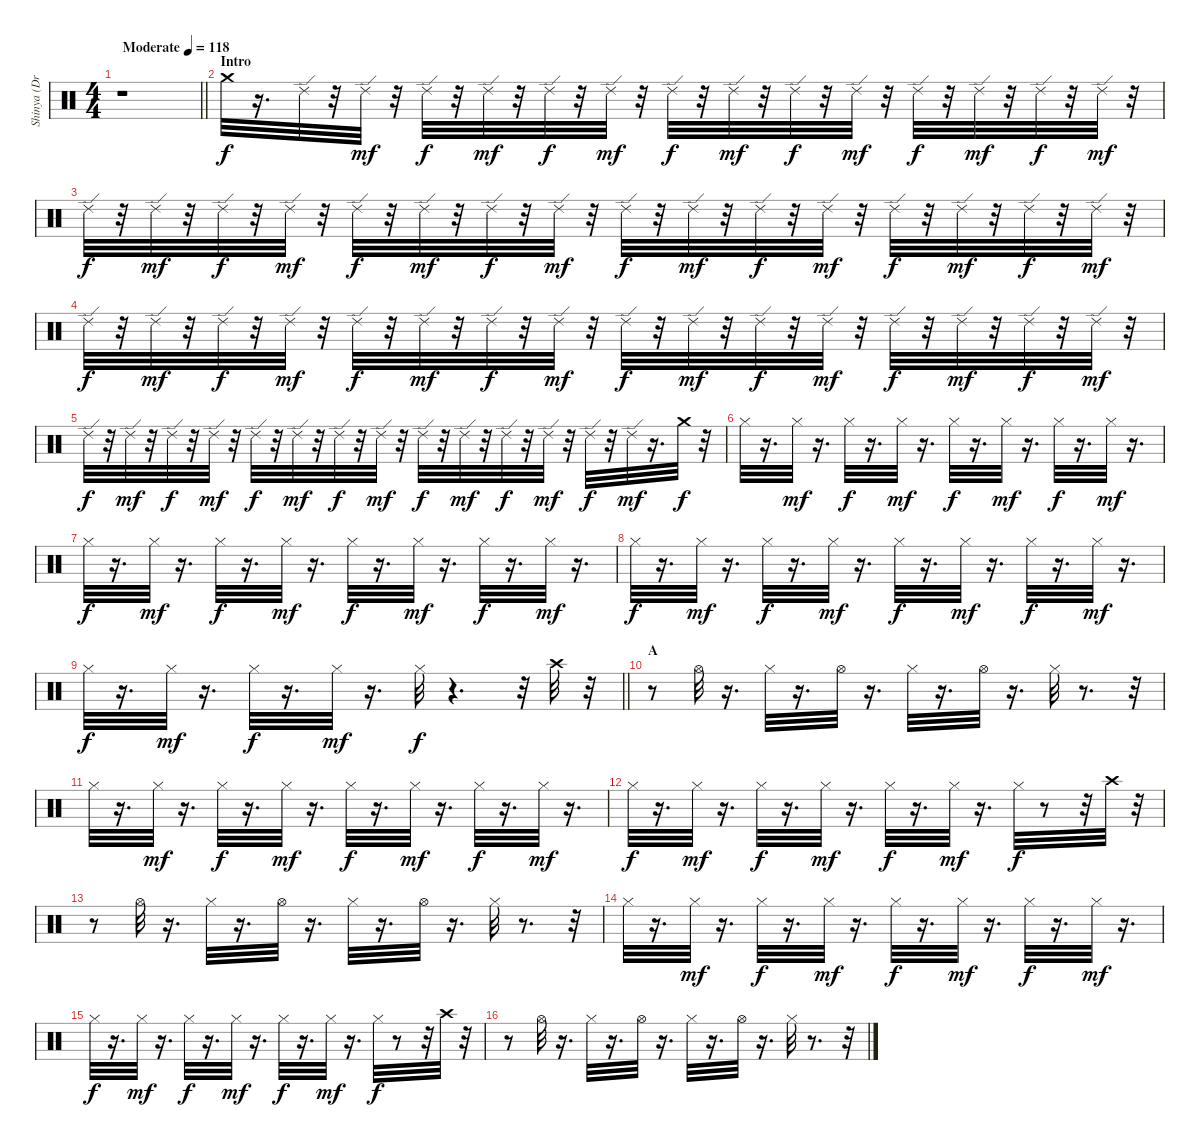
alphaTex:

\track ("Shinya (Drums)" "Shinya (Dr") {instrument percussion}
\staff {score}
\articulation defaults
\ts (4 4)
\tempo (118 "Moderate")
\clef neutral
\barLineRight lightlight
\ks c
r.1{dy f} |
\section ("" "Intro")
"Crash medium (hit)".32 r.16{d} "Ride (edge) 2".32 r.32 "Ride (edge) 2".32{dy mf} r.32 "Ride (edge) 2".32{dy f} r.32 "Ride (edge) 2".32{dy mf} r.32 "Ride (edge) 2".32{dy f} r.32 "Ride (edge) 2".32{dy mf} r.32 "Ride (edge) 2".32{dy f} r.32 "Ride (edge) 2".32{dy mf} r.32 "Ride (edge) 2".32{dy f} r.32 "Ride (edge) 2".32{dy mf} r.32 "Ride (edge) 2".32{dy f} r.32 "Ride (edge) 2".32{dy mf} r.32 "Ride (edge) 2".32{dy f} r.32 "Ride (edge) 2".32{dy mf} r.32 |
"Ride (edge) 2".32{dy f} r.32 "Ride (edge) 2".32{dy mf} r.32 "Ride (edge) 2".32{dy f} r.32 "Ride (edge) 2".32{dy mf} r.32 "Ride (edge) 2".32{dy f} r.32 "Ride (edge) 2".32{dy mf} r.32 "Ride (edge) 2".32{dy f} r.32 "Ride (edge) 2".32{dy mf} r.32 "Ride (edge) 2".32{dy f} r.32 "Ride (edge) 2".32{dy mf} r.32 "Ride (edge) 2".32{dy f} r.32 "Ride (edge) 2".32{dy mf} r.32 "Ride (edge) 2".32{dy f} r.32 "Ride (edge) 2".32{dy mf} r.32 "Ride (edge) 2".32{dy f} r.32 "Ride (edge) 2".32{dy mf} r.32 |
"Ride (edge) 2".32{dy f} r.32 "Ride (edge) 2".32{dy mf} r.32 "Ride (edge) 2".32{dy f} r.32 "Ride (edge) 2".32{dy mf} r.32 "Ride (edge) 2".32{dy f} r.32 "Ride (edge) 2".32{dy mf} r.32 "Ride (edge) 2".32{dy f} r.32 "Ride (edge) 2".32{dy mf} r.32 "Ride (edge) 2".32{dy f} r.32 "Ride (edge) 2".32{dy mf} r.32 "Ride (edge) 2".32{dy f} r.32 "Ride (edge) 2".32{dy mf} r.32 "Ride (edge) 2".32{dy f} r.32 "Ride (edge) 2".32{dy mf} r.32 "Ride (edge) 2".32{dy f} r.32 "Ride (edge) 2".32{dy mf} r.32 |
"Ride (edge) 2".32{dy f} r.32 "Ride (edge) 2".32{dy mf} r.32 "Ride (edge) 2".32{dy f} r.32 "Ride (edge) 2".32{dy mf} r.32 "Ride (edge) 2".32{dy f} r.32 "Ride (edge) 2".32{dy mf} r.32 "Ride (edge) 2".32{dy f} r.32 "Ride (edge) 2".32{dy mf} r.32 "Ride (edge) 2".32{dy f} r.32 "Ride (edge) 2".32{dy mf} r.32 "Ride (edge) 2".32{dy f} r.32 "Ride (edge) 2".32{dy mf} r.32 "Ride (edge) 2".32{dy f} r.32 "Ride (edge) 2".32{dy mf} r.16{d} "Crash medium (hit)".32{dy f} r.32 |
"Hi-Hat (closed)".32 r.16{d} "Hi-Hat (closed)".32{dy mf} r.16{d} "Hi-Hat (closed)".32{dy f} r.16{d} "Hi-Hat (closed)".32{dy mf} r.16{d} "Hi-Hat (closed)".32{dy f} r.16{d} "Hi-Hat (closed)".32{dy mf} r.16{d} "Hi-Hat (closed)".32{dy f} r.16{d} "Hi-Hat (closed)".32{dy mf} r.16{d} |
"Hi-Hat (closed)".32{dy f} r.16{d} "Hi-Hat (closed)".32{dy mf} r.16{d} "Hi-Hat (closed)".32{dy f} r.16{d} "Hi-Hat (closed)".32{dy mf} r.16{d} "Hi-Hat (closed)".32{dy f} r.16{d} "Hi-Hat (closed)".32{dy mf} r.16{d} "Hi-Hat (closed)".32{dy f} r.16{d} "Hi-Hat (closed)".32{dy mf} r.16{d} |
"Hi-Hat (closed)".32{dy f} r.16{d} "Hi-Hat (closed)".32{dy mf} r.16{d} "Hi-Hat (closed)".32{dy f} r.16{d} "Hi-Hat (closed)".32{dy mf} r.16{d} "Hi-Hat (closed)".32{dy f} r.16{d} "Hi-Hat (closed)".32{dy mf} r.16{d} "Hi-Hat (closed)".32{dy f} r.16{d} "Hi-Hat (closed)".32{dy mf} r.16{d} |
\barLineRight lightlight "Hi-Hat (closed)".32{dy f}
r.16{d} "Hi-Hat (closed)".32{dy mf} r.16{d} "Hi-Hat (closed)".32{dy f} r.16{d} "Hi-Hat (closed)".32{dy mf} r.16{d} "Hi-Hat (closed)".32{dy f} r.4{d} r.32 "Crash high (hit)".32 r.32 |
\section ("" "A")
r.8 "Hi-Hat (open)".32 r.16{d} "Hi-Hat (closed)".32 r.16{d} "Hi-Hat (open)".32 r.16{d} "Hi-Hat (closed)".32 r.16{d} "Hi-Hat (open)".32 r.16{d} "Hi-Hat (closed)".32 r.8{d} r.32 |
"Hi-Hat (closed)".32 r.16{d} "Hi-Hat (closed)".32{dy mf} r.16{d} "Hi-Hat (closed)".32{dy f} r.16{d} "Hi-Hat (closed)".32{dy mf} r.16{d} "Hi-Hat (closed)".32{dy f} r.16{d} "Hi-Hat (closed)".32{dy mf} r.16{d} "Hi-Hat (closed)".32{dy f} r.16{d} "Hi-Hat (closed)".32{dy mf} r.16{d} |
"Hi-Hat (closed)".32{dy f} r.16{d} "Hi-Hat (closed)".32{dy mf} r.16{d} "Hi-Hat (closed)".32{dy f} r.16{d} "Hi-Hat (closed)".32{dy mf} r.16{d} "Hi-Hat (closed)".32{dy f} r.16{d} "Hi-Hat (closed)".32{dy mf} r.16{d} "Hi-Hat (closed)".32{dy f} r.8 r.32 "Crash high (hit)".32 r.32 |
r.8 "Hi-Hat (open)".32 r.16{d} "Hi-Hat (closed)".32 r.16{d} "Hi-Hat (open)".32 r.16{d} "Hi-Hat (closed)".32 r.16{d} "Hi-Hat (open)".32 r.16{d} "Hi-Hat (closed)".32 r.8{d} r.32 |
"Hi-Hat (closed)".32 r.16{d} "Hi-Hat (closed)".32{dy mf} r.16{d} "Hi-Hat (closed)".32{dy f} r.16{d} "Hi-Hat (closed)".32{dy mf} r.16{d} "Hi-Hat (closed)".32{dy f} r.16{d} "Hi-Hat (closed)".32{dy mf} r.16{d} "Hi-Hat (closed)".32{dy f} r.16{d} "Hi-Hat (closed)".32{dy mf} r.16{d} |
"Hi-Hat (closed)".32{dy f} r.16{d} "Hi-Hat (closed)".32{dy mf} r.16{d} "Hi-Hat (closed)".32{dy f} r.16{d} "Hi-Hat (closed)".32{dy mf} r.16{d} "Hi-Hat (closed)".32{dy f} r.16{d} "Hi-Hat (closed)".32{dy mf} r.16{d} "Hi-Hat (closed)".32{dy f} r.8 r.32 "Crash high (hit)".32 r.32 |
r.8 "Hi-Hat (open)".32 r.16{d} "Hi-Hat (closed)".32 r.16{d} "Hi-Hat (open)".32 r.16{d} "Hi-Hat (closed)".32 r.16{d} "Hi-Hat (open)".32 r.16{d} "Hi-Hat (closed)".32 r.8{d} r.32
